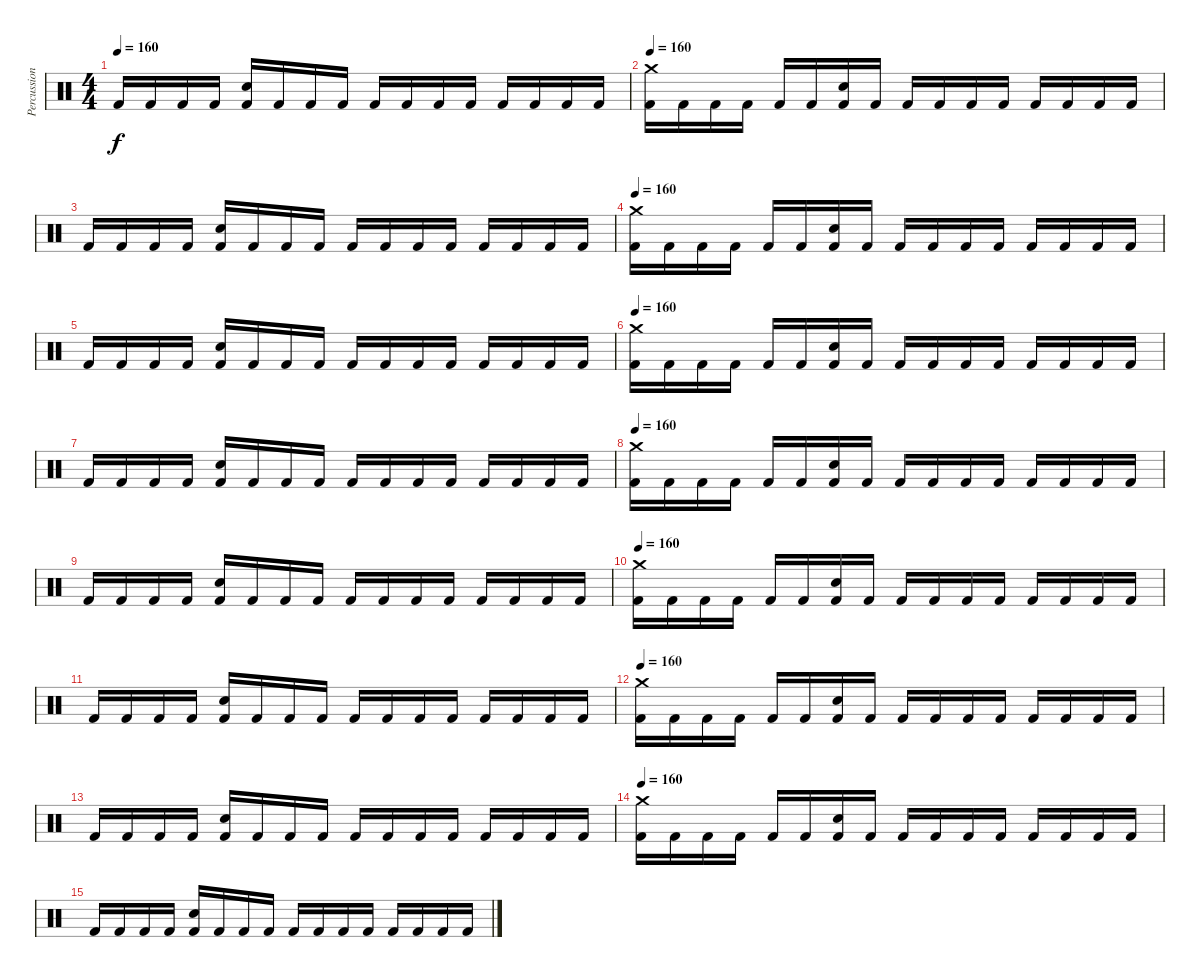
\track ("Percussion(Dr.Spock)" "Percussion") {instrument percussion}
\staff {score}
\articulation defaults
\ts (4 4)
\tempo 160
\clef neutral
\ks c "Kick (hit) 2".16{dy f} "Kick (hit) 2".16 "Kick (hit) 2".16 "Kick (hit) 2".16
("Kick (hit) 2" "Snare (hit) 2").16 "Kick (hit) 2".16 "Kick (hit) 2".16 "Kick (hit) 2".16 "Kick (hit) 2".16 "Kick (hit) 2".16 "Kick (hit) 2".16 "Kick (hit) 2".16 "Kick (hit) 2".16 "Kick (hit) 2".16 "Kick (hit) 2".16 "Kick (hit) 2".16 |
\tempo 160
("Kick (hit) 2" "Crash medium (hit)").16 "Kick (hit) 2".16 "Kick (hit) 2".16 "Kick (hit) 2".16 "Kick (hit) 2".16 "Kick (hit) 2".16 ("Kick (hit) 2" "Snare (hit) 2").16 "Kick (hit) 2".16 "Kick (hit) 2".16 "Kick (hit) 2".16 "Kick (hit) 2".16 "Kick (hit) 2".16 "Kick (hit) 2".16 "Kick (hit) 2".16 "Kick (hit) 2".16 "Kick (hit) 2".16 |
"Kick (hit) 2".16 "Kick (hit) 2".16 "Kick (hit) 2".16 "Kick (hit) 2".16 ("Kick (hit) 2" "Snare (hit) 2").16 "Kick (hit) 2".16 "Kick (hit) 2".16 "Kick (hit) 2".16 "Kick (hit) 2".16 "Kick (hit) 2".16 "Kick (hit) 2".16 "Kick (hit) 2".16 "Kick (hit) 2".16 "Kick (hit) 2".16 "Kick (hit) 2".16 "Kick (hit) 2".16 |
\tempo 160
("Kick (hit) 2" "Crash medium (hit)").16 "Kick (hit) 2".16 "Kick (hit) 2".16 "Kick (hit) 2".16 "Kick (hit) 2".16 "Kick (hit) 2".16 ("Kick (hit) 2" "Snare (hit) 2").16 "Kick (hit) 2".16 "Kick (hit) 2".16 "Kick (hit) 2".16 "Kick (hit) 2".16 "Kick (hit) 2".16 "Kick (hit) 2".16 "Kick (hit) 2".16 "Kick (hit) 2".16 "Kick (hit) 2".16 |
"Kick (hit) 2".16 "Kick (hit) 2".16 "Kick (hit) 2".16 "Kick (hit) 2".16 ("Kick (hit) 2" "Snare (hit) 2").16 "Kick (hit) 2".16 "Kick (hit) 2".16 "Kick (hit) 2".16 "Kick (hit) 2".16 "Kick (hit) 2".16 "Kick (hit) 2".16 "Kick (hit) 2".16 "Kick (hit) 2".16 "Kick (hit) 2".16 "Kick (hit) 2".16 "Kick (hit) 2".16 |
\tempo 160
("Kick (hit) 2" "Crash medium (hit)").16 "Kick (hit) 2".16 "Kick (hit) 2".16 "Kick (hit) 2".16 "Kick (hit) 2".16 "Kick (hit) 2".16 ("Kick (hit) 2" "Snare (hit) 2").16 "Kick (hit) 2".16 "Kick (hit) 2".16 "Kick (hit) 2".16 "Kick (hit) 2".16 "Kick (hit) 2".16 "Kick (hit) 2".16 "Kick (hit) 2".16 "Kick (hit) 2".16 "Kick (hit) 2".16 |
"Kick (hit) 2".16 "Kick (hit) 2".16 "Kick (hit) 2".16 "Kick (hit) 2".16 ("Kick (hit) 2" "Snare (hit) 2").16 "Kick (hit) 2".16 "Kick (hit) 2".16 "Kick (hit) 2".16 "Kick (hit) 2".16 "Kick (hit) 2".16 "Kick (hit) 2".16 "Kick (hit) 2".16 "Kick (hit) 2".16 "Kick (hit) 2".16 "Kick (hit) 2".16 "Kick (hit) 2".16 |
\tempo 160
("Kick (hit) 2" "Crash medium (hit)").16 "Kick (hit) 2".16 "Kick (hit) 2".16 "Kick (hit) 2".16 "Kick (hit) 2".16 "Kick (hit) 2".16 ("Kick (hit) 2" "Snare (hit) 2").16 "Kick (hit) 2".16 "Kick (hit) 2".16 "Kick (hit) 2".16 "Kick (hit) 2".16 "Kick (hit) 2".16 "Kick (hit) 2".16 "Kick (hit) 2".16 "Kick (hit) 2".16 "Kick (hit) 2".16 |
"Kick (hit) 2".16 "Kick (hit) 2".16 "Kick (hit) 2".16 "Kick (hit) 2".16 ("Kick (hit) 2" "Snare (hit) 2").16 "Kick (hit) 2".16 "Kick (hit) 2".16 "Kick (hit) 2".16 "Kick (hit) 2".16 "Kick (hit) 2".16 "Kick (hit) 2".16 "Kick (hit) 2".16 "Kick (hit) 2".16 "Kick (hit) 2".16 "Kick (hit) 2".16 "Kick (hit) 2".16 |
\tempo 160
("Kick (hit) 2" "Crash medium (hit)").16 "Kick (hit) 2".16 "Kick (hit) 2".16 "Kick (hit) 2".16 "Kick (hit) 2".16 "Kick (hit) 2".16 ("Kick (hit) 2" "Snare (hit) 2").16 "Kick (hit) 2".16 "Kick (hit) 2".16 "Kick (hit) 2".16 "Kick (hit) 2".16 "Kick (hit) 2".16 "Kick (hit) 2".16 "Kick (hit) 2".16 "Kick (hit) 2".16 "Kick (hit) 2".16 |
"Kick (hit) 2".16 "Kick (hit) 2".16 "Kick (hit) 2".16 "Kick (hit) 2".16 ("Kick (hit) 2" "Snare (hit) 2").16 "Kick (hit) 2".16 "Kick (hit) 2".16 "Kick (hit) 2".16 "Kick (hit) 2".16 "Kick (hit) 2".16 "Kick (hit) 2".16 "Kick (hit) 2".16 "Kick (hit) 2".16 "Kick (hit) 2".16 "Kick (hit) 2".16 "Kick (hit) 2".16 |
\tempo 160
("Kick (hit) 2" "Crash medium (hit)").16 "Kick (hit) 2".16 "Kick (hit) 2".16 "Kick (hit) 2".16 "Kick (hit) 2".16 "Kick (hit) 2".16 ("Kick (hit) 2" "Snare (hit) 2").16 "Kick (hit) 2".16 "Kick (hit) 2".16 "Kick (hit) 2".16 "Kick (hit) 2".16 "Kick (hit) 2".16 "Kick (hit) 2".16 "Kick (hit) 2".16 "Kick (hit) 2".16 "Kick (hit) 2".16 |
"Kick (hit) 2".16 "Kick (hit) 2".16 "Kick (hit) 2".16 "Kick (hit) 2".16 ("Kick (hit) 2" "Snare (hit) 2").16 "Kick (hit) 2".16 "Kick (hit) 2".16 "Kick (hit) 2".16 "Kick (hit) 2".16 "Kick (hit) 2".16 "Kick (hit) 2".16 "Kick (hit) 2".16 "Kick (hit) 2".16 "Kick (hit) 2".16 "Kick (hit) 2".16 "Kick (hit) 2".16 |
\tempo 160
("Kick (hit) 2" "Crash medium (hit)").16 "Kick (hit) 2".16 "Kick (hit) 2".16 "Kick (hit) 2".16 "Kick (hit) 2".16 "Kick (hit) 2".16 ("Kick (hit) 2" "Snare (hit) 2").16 "Kick (hit) 2".16 "Kick (hit) 2".16 "Kick (hit) 2".16 "Kick (hit) 2".16 "Kick (hit) 2".16 "Kick (hit) 2".16 "Kick (hit) 2".16 "Kick (hit) 2".16 "Kick (hit) 2".16 |
"Kick (hit) 2".16 "Kick (hit) 2".16 "Kick (hit) 2".16 "Kick (hit) 2".16 ("Kick (hit) 2" "Snare (hit) 2").16 "Kick (hit) 2".16 "Kick (hit) 2".16 "Kick (hit) 2".16 "Kick (hit) 2".16 "Kick (hit) 2".16 "Kick (hit) 2".16 "Kick (hit) 2".16 "Kick (hit) 2".16 "Kick (hit) 2".16 "Kick (hit) 2".16 "Kick (hit) 2".16
